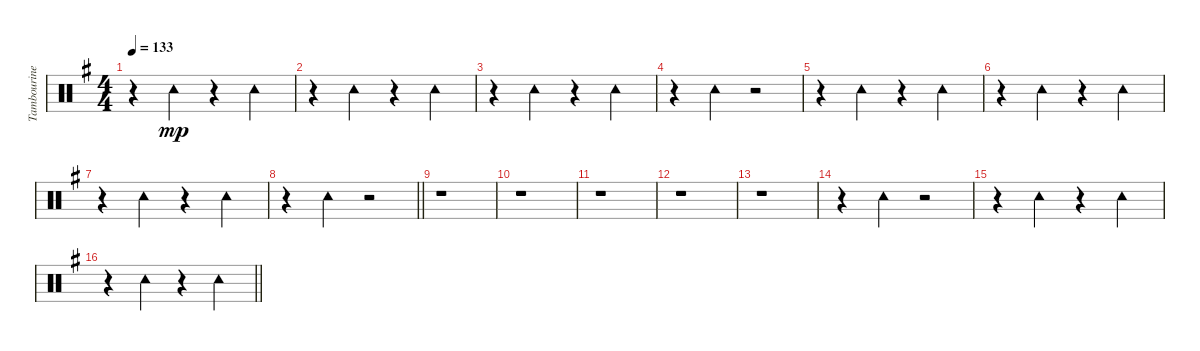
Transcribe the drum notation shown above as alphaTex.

\track ("Tambourine/Claps" "Tambourine") {instrument percussion}
\staff {score}
\articulation defaults
\ts (4 4)
\tempo 133
\clef neutral
\ks g
r.4{dy mp} "Tambourine (hit)".4 r.4 "Tambourine (hit)".4 |
r.4 "Tambourine (hit)".4 r.4 "Tambourine (hit)".4 |
r.4 "Tambourine (hit)".4 r.4 "Tambourine (hit)".4 |
r.4 "Tambourine (hit)".4 r.2 |
r.4 "Tambourine (hit)".4 r.4 "Tambourine (hit)".4 |
r.4 "Tambourine (hit)".4 r.4 "Tambourine (hit)".4 |
r.4 "Tambourine (hit)".4 r.4 "Tambourine (hit)".4 |
\barLineRight lightlight
r.4 "Tambourine (hit)".4 r.2 |
r.1 |
r.1 |
r.1 |
r.1 |
r.1 |
r.4 "Tambourine (hit)".4 r.2 |
r.4 "Tambourine (hit)".4 r.4 "Tambourine (hit)".4 |
\barLineRight lightlight
r.4 "Tambourine (hit)".4 r.4 "Tambourine (hit)".4
